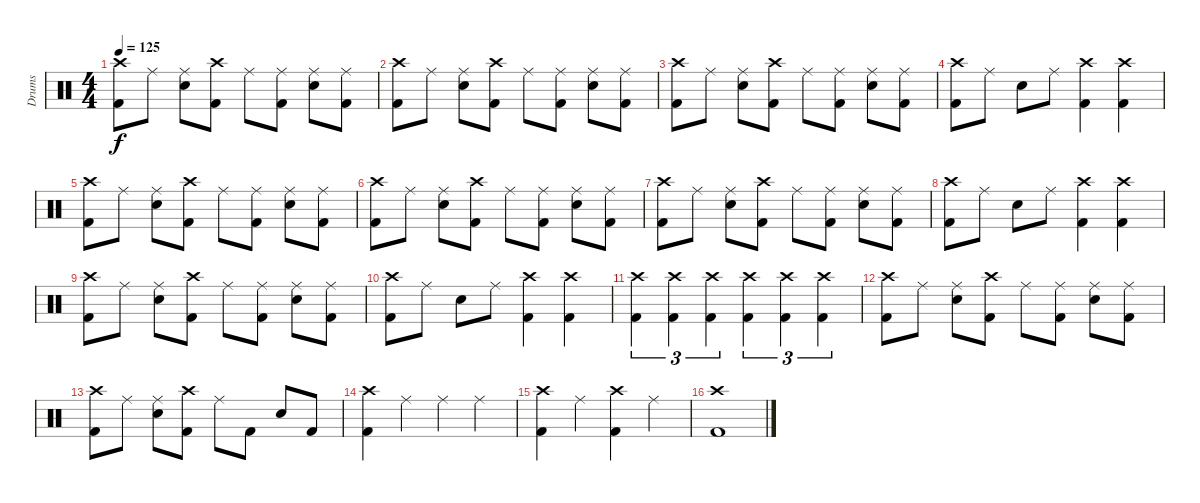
\track ("Drums" "Drums") {instrument percussion}
\staff {score}
\articulation defaults
\ts (4 4)
\tempo 125
\clef neutral
\ks c
("Crash high (hit)" "Kick (hit) 2").8{dy f} "Ride (middle)".8 ("Ride (middle)" "Snare (hit) 2").8 ("Crash high (hit)" "Kick (hit) 2").8 "Ride (middle)".8 ("Ride (middle)" "Kick (hit) 2").8 ("Ride (middle)" "Snare (hit) 2").8 ("Ride (middle)" "Kick (hit) 2").8 |
("Crash high (hit)" "Kick (hit) 2").8 "Ride (middle)".8 ("Ride (middle)" "Snare (hit) 2").8 ("Crash high (hit)" "Kick (hit) 2").8 "Ride (middle)".8 ("Ride (middle)" "Kick (hit) 2").8 ("Ride (middle)" "Snare (hit) 2").8 ("Ride (middle)" "Kick (hit) 2").8 |
("Crash high (hit)" "Kick (hit) 2").8 "Ride (middle)".8 ("Ride (middle)" "Snare (hit) 2").8 ("Crash high (hit)" "Kick (hit) 2").8 "Ride (middle)".8 ("Ride (middle)" "Kick (hit) 2").8 ("Ride (middle)" "Snare (hit) 2").8 ("Ride (middle)" "Kick (hit) 2").8 |
("Crash high (hit)" "Kick (hit) 2").8 "Ride (middle)".8 "Snare (hit) 2".8 "Ride (middle)".8 ("Crash high (hit)" "Kick (hit) 2").4 ("Crash high (hit)" "Kick (hit) 2").4 |
("Crash high (hit)" "Kick (hit) 2").8 "Ride (middle)".8 ("Ride (middle)" "Snare (hit) 2").8 ("Crash high (hit)" "Kick (hit) 2").8 "Ride (middle)".8 ("Ride (middle)" "Kick (hit) 2").8 ("Ride (middle)" "Snare (hit) 2").8 ("Ride (middle)" "Kick (hit) 2").8 |
("Crash high (hit)" "Kick (hit) 2").8 "Ride (middle)".8 ("Ride (middle)" "Snare (hit) 2").8 ("Crash high (hit)" "Kick (hit) 2").8 "Ride (middle)".8 ("Ride (middle)" "Kick (hit) 2").8 ("Ride (middle)" "Snare (hit) 2").8 ("Ride (middle)" "Kick (hit) 2").8 |
("Crash high (hit)" "Kick (hit) 2").8 "Ride (middle)".8 ("Ride (middle)" "Snare (hit) 2").8 ("Crash high (hit)" "Kick (hit) 2").8 "Ride (middle)".8 ("Ride (middle)" "Kick (hit) 2").8 ("Ride (middle)" "Snare (hit) 2").8 ("Ride (middle)" "Kick (hit) 2").8 |
("Crash high (hit)" "Kick (hit) 2").8 "Ride (middle)".8 "Snare (hit) 2".8 "Ride (middle)".8 ("Crash high (hit)" "Kick (hit) 2").4 ("Crash high (hit)" "Kick (hit) 2").4 |
("Crash high (hit)" "Kick (hit) 2").8 "Ride (middle)".8 ("Ride (middle)" "Snare (hit) 2").8 ("Crash high (hit)" "Kick (hit) 2").8 "Ride (middle)".8 ("Ride (middle)" "Kick (hit) 2").8 ("Ride (middle)" "Snare (hit) 2").8 ("Ride (middle)" "Kick (hit) 2").8 |
("Crash high (hit)" "Kick (hit) 2").8 "Ride (middle)".8 "Snare (hit) 2".8 "Ride (middle)".8 ("Crash high (hit)" "Kick (hit) 2").4 ("Crash high (hit)" "Kick (hit) 2").4 |
("Crash high (hit)" "Kick (hit) 2").4{tu (3 2)} ("Crash high (hit)" "Kick (hit) 2").4{tu (3 2)} ("Crash high (hit)" "Kick (hit) 2").4{tu (3 2)} ("Crash high (hit)" "Kick (hit) 2").4{tu (3 2)} ("Crash high (hit)" "Kick (hit) 2").4{tu (3 2)} ("Crash high (hit)" "Kick (hit) 2").4{tu (3 2)} |
("Crash high (hit)" "Kick (hit) 2").8 "Ride (middle)".8 ("Ride (middle)" "Snare (hit) 2").8 ("Crash high (hit)" "Kick (hit) 2").8 "Ride (middle)".8 ("Ride (middle)" "Kick (hit) 2").8 ("Ride (middle)" "Snare (hit) 2").8 ("Ride (middle)" "Kick (hit) 2").8 |
("Crash high (hit)" "Kick (hit) 2").8 "Ride (middle)".8 ("Ride (middle)" "Snare (hit) 2").8 ("Kick (hit) 2" "Crash high (hit)").8 "Ride (middle)".8 "Kick (hit) 2".8 "Snare (hit) 2".8 "Kick (hit) 2".8 |
("Crash high (hit)" "Kick (hit) 2").4 "Ride (middle)".4 "Ride (middle)".4 "Ride (middle)".4 |
("Crash high (hit)" "Kick (hit) 2").4 "Ride (middle)".4 ("Crash high (hit)" "Kick (hit) 2").4 "Ride (middle)".4 |
("Crash high (hit)" "Kick (hit) 2").1
